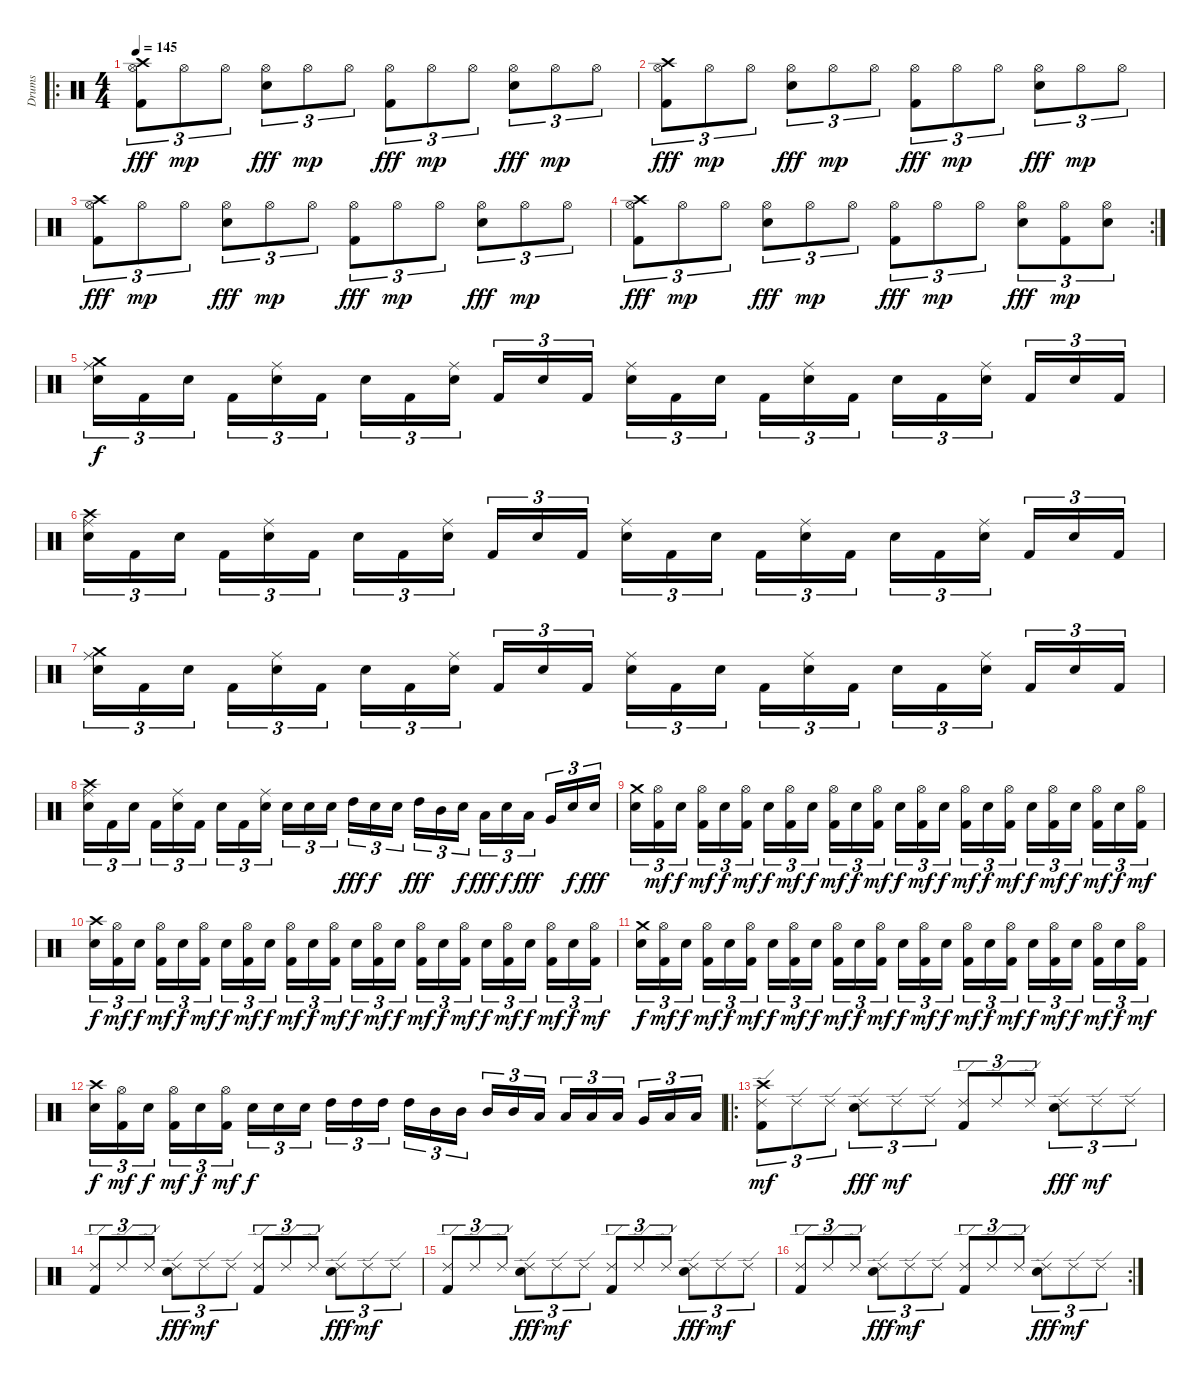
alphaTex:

\track ("Drums" "Drums") {instrument percussion}
\staff {score}
\articulation defaults
\ro
\ts (4 4)
\tempo 145
\clef neutral
\ks c
("Crash high (hit)" "Hi-Hat (open)" "Kick (hit) 2").8{tu (3 2) dy fff} "Hi-Hat (open)".8{tu (3 2) dy mp} "Hi-Hat (open)".8{tu (3 2)} ("Hi-Hat (open)" "Electric Snare (hit)").8{tu (3 2) dy fff} "Hi-Hat (open)".8{tu (3 2) dy mp} "Hi-Hat (open)".8{tu (3 2)} ("Hi-Hat (open)" "Kick (hit) 2").8{tu (3 2) dy fff} "Hi-Hat (open)".8{tu (3 2) dy mp} "Hi-Hat (open)".8{tu (3 2)} ("Hi-Hat (open)" "Electric Snare (hit)").8{tu (3 2) dy fff} "Hi-Hat (open)".8{tu (3 2) dy mp} "Hi-Hat (open)".8{tu (3 2)} |
("Crash high (hit)" "Hi-Hat (open)" "Kick (hit) 2").8{tu (3 2) dy fff} "Hi-Hat (open)".8{tu (3 2) dy mp} "Hi-Hat (open)".8{tu (3 2)} ("Hi-Hat (open)" "Electric Snare (hit)").8{tu (3 2) dy fff} "Hi-Hat (open)".8{tu (3 2) dy mp} "Hi-Hat (open)".8{tu (3 2)} ("Hi-Hat (open)" "Kick (hit) 2").8{tu (3 2) dy fff} "Hi-Hat (open)".8{tu (3 2) dy mp} "Hi-Hat (open)".8{tu (3 2)} ("Hi-Hat (open)" "Electric Snare (hit)").8{tu (3 2) dy fff} "Hi-Hat (open)".8{tu (3 2) dy mp} "Hi-Hat (open)".8{tu (3 2)} |
("Crash high (hit)" "Hi-Hat (open)" "Kick (hit) 2").8{tu (3 2) dy fff} "Hi-Hat (open)".8{tu (3 2) dy mp} "Hi-Hat (open)".8{tu (3 2)} ("Hi-Hat (open)" "Electric Snare (hit)").8{tu (3 2) dy fff} "Hi-Hat (open)".8{tu (3 2) dy mp} "Hi-Hat (open)".8{tu (3 2)} ("Hi-Hat (open)" "Kick (hit) 2").8{tu (3 2) dy fff} "Hi-Hat (open)".8{tu (3 2) dy mp} "Hi-Hat (open)".8{tu (3 2)} ("Hi-Hat (open)" "Electric Snare (hit)").8{tu (3 2) dy fff} "Hi-Hat (open)".8{tu (3 2) dy mp} "Hi-Hat (open)".8{tu (3 2)} |
\rc 2
("Crash high (hit)" "Hi-Hat (open)" "Kick (hit) 2").8{tu (3 2) dy fff} "Hi-Hat (open)".8{tu (3 2) dy mp} "Hi-Hat (open)".8{tu (3 2)} ("Hi-Hat (open)" "Electric Snare (hit)").8{tu (3 2) dy fff} "Hi-Hat (open)".8{tu (3 2) dy mp} "Hi-Hat (open)".8{tu (3 2)} ("Hi-Hat (open)" "Kick (hit) 2").8{tu (3 2) dy fff} "Hi-Hat (open)".8{tu (3 2) dy mp} "Hi-Hat (open)".8{tu (3 2)} ("Hi-Hat (open)" "Electric Snare (hit)").8{tu (3 2) dy fff} ("Hi-Hat (open)" "Kick (hit) 2").8{tu (3 2) dy mp} ("Hi-Hat (open)" "Electric Snare (hit)").8{tu (3 2)} |
("Ride (middle)" "Crash medium (hit)" "Electric Snare (hit)").16{tu (3 2) dy f} "Kick (hit) 2".16{tu (3 2)} "Electric Snare (hit)".16{tu (3 2)} "Kick (hit) 2".16{tu (3 2)} ("Ride (middle)" "Electric Snare (hit)").16{tu (3 2)} "Kick (hit) 2".16{tu (3 2)} "Electric Snare (hit)".16{tu (3 2)} "Kick (hit) 2".16{tu (3 2)} ("Ride (middle)" "Electric Snare (hit)").16{tu (3 2)} "Kick (hit) 2".16{tu (3 2)} "Electric Snare (hit)".16{tu (3 2)} "Kick (hit) 2".16{tu (3 2)} ("Ride (middle)" "Electric Snare (hit)").16{tu (3 2)} "Kick (hit) 2".16{tu (3 2)} "Electric Snare (hit)".16{tu (3 2)} "Kick (hit) 2".16{tu (3 2)} ("Ride (middle)" "Electric Snare (hit)").16{tu (3 2)} "Kick (hit) 2".16{tu (3 2)} "Electric Snare (hit)".16{tu (3 2)} "Kick (hit) 2".16{tu (3 2)} ("Ride (middle)" "Electric Snare (hit)").16{tu (3 2)} "Kick (hit) 2".16{tu (3 2)} "Electric Snare (hit)".16{tu (3 2)} "Kick (hit) 2".16{tu (3 2)} |
("Ride (middle)" "Crash high (hit)" "Electric Snare (hit)").16{tu (3 2)} "Kick (hit) 2".16{tu (3 2)} "Electric Snare (hit)".16{tu (3 2)} "Kick (hit) 2".16{tu (3 2)} ("Ride (middle)" "Electric Snare (hit)").16{tu (3 2)} "Kick (hit) 2".16{tu (3 2)} "Electric Snare (hit)".16{tu (3 2)} "Kick (hit) 2".16{tu (3 2)} ("Ride (middle)" "Electric Snare (hit)").16{tu (3 2)} "Kick (hit) 2".16{tu (3 2)} "Electric Snare (hit)".16{tu (3 2)} "Kick (hit) 2".16{tu (3 2)} ("Ride (middle)" "Electric Snare (hit)").16{tu (3 2)} "Kick (hit) 2".16{tu (3 2)} "Electric Snare (hit)".16{tu (3 2)} "Kick (hit) 2".16{tu (3 2)} ("Ride (middle)" "Electric Snare (hit)").16{tu (3 2)} "Kick (hit) 2".16{tu (3 2)} "Electric Snare (hit)".16{tu (3 2)} "Kick (hit) 2".16{tu (3 2)} ("Ride (middle)" "Electric Snare (hit)").16{tu (3 2)} "Kick (hit) 2".16{tu (3 2)} "Electric Snare (hit)".16{tu (3 2)} "Kick (hit) 2".16{tu (3 2)} |
("Ride (middle)" "Crash medium (hit)" "Electric Snare (hit)").16{tu (3 2)} "Kick (hit) 2".16{tu (3 2)} "Electric Snare (hit)".16{tu (3 2)} "Kick (hit) 2".16{tu (3 2)} ("Ride (middle)" "Electric Snare (hit)").16{tu (3 2)} "Kick (hit) 2".16{tu (3 2)} "Electric Snare (hit)".16{tu (3 2)} "Kick (hit) 2".16{tu (3 2)} ("Ride (middle)" "Electric Snare (hit)").16{tu (3 2)} "Kick (hit) 2".16{tu (3 2)} "Electric Snare (hit)".16{tu (3 2)} "Kick (hit) 2".16{tu (3 2)} ("Ride (middle)" "Electric Snare (hit)").16{tu (3 2)} "Kick (hit) 2".16{tu (3 2)} "Electric Snare (hit)".16{tu (3 2)} "Kick (hit) 2".16{tu (3 2)} ("Ride (middle)" "Electric Snare (hit)").16{tu (3 2)} "Kick (hit) 2".16{tu (3 2)} "Electric Snare (hit)".16{tu (3 2)} "Kick (hit) 2".16{tu (3 2)} ("Ride (middle)" "Electric Snare (hit)").16{tu (3 2)} "Kick (hit) 2".16{tu (3 2)} "Electric Snare (hit)".16{tu (3 2)} "Kick (hit) 2".16{tu (3 2)} |
("Ride (middle)" "Crash high (hit)" "Electric Snare (hit)").16{tu (3 2)} "Kick (hit) 2".16{tu (3 2)} "Electric Snare (hit)".16{tu (3 2)} "Kick (hit) 2".16{tu (3 2)} ("Ride (middle)" "Electric Snare (hit)").16{tu (3 2)} "Kick (hit) 2".16{tu (3 2)} "Electric Snare (hit)".16{tu (3 2)} "Kick (hit) 2".16{tu (3 2)} ("Ride (middle)" "Electric Snare (hit)").16{tu (3 2)} "Electric Snare (hit)".16{tu (3 2)} "Electric Snare (hit)".16{tu (3 2)} "Electric Snare (hit)".16{tu (3 2)} "High Tom (hit)".16{tu (3 2) dy fff} "Electric Snare (hit)".16{tu (3 2) dy f} "Electric Snare (hit)".16{tu (3 2)} "High Tom (hit)".16{tu (3 2) dy fff} "Mid Tom (hit)".16{tu (3 2)} "Electric Snare (hit)".16{tu (3 2) dy f} "Low Tom (hit)".16{tu (3 2) dy fff} "Electric Snare (hit)".16{tu (3 2) dy f} "Low Tom (hit)".16{tu (3 2) dy fff} "Very Low Tom (hit)".16{tu (3 2)} "Electric Snare (hit)".16{tu (3 2) dy f} "Electric Snare (hit)".16{tu (3 2) dy fff} |
("Crash medium (hit)" "Electric Snare (hit)").16{tu (3 2)} ("Hi-Hat (open)" "Kick (hit) 2").16{tu (3 2) dy mf} "Electric Snare (hit)".16{tu (3 2) dy f} ("Hi-Hat (open)" "Kick (hit) 2").16{tu (3 2) dy mf} "Electric Snare (hit)".16{tu (3 2) dy f} ("Hi-Hat (open)" "Kick (hit) 2").16{tu (3 2) dy mf} "Electric Snare (hit)".16{tu (3 2) dy f} ("Hi-Hat (open)" "Kick (hit) 2").16{tu (3 2) dy mf} "Electric Snare (hit)".16{tu (3 2) dy f} ("Hi-Hat (open)" "Kick (hit) 2").16{tu (3 2) dy mf} "Electric Snare (hit)".16{tu (3 2) dy f} ("Hi-Hat (open)" "Kick (hit) 2").16{tu (3 2) dy mf} "Electric Snare (hit)".16{tu (3 2) dy f} ("Hi-Hat (open)" "Kick (hit) 2").16{tu (3 2) dy mf} "Electric Snare (hit)".16{tu (3 2) dy f} ("Hi-Hat (open)" "Kick (hit) 2").16{tu (3 2) dy mf} "Electric Snare (hit)".16{tu (3 2) dy f} ("Hi-Hat (open)" "Kick (hit) 2").16{tu (3 2) dy mf} "Electric Snare (hit)".16{tu (3 2) dy f} ("Hi-Hat (open)" "Kick (hit) 2").16{tu (3 2) dy mf} "Electric Snare (hit)".16{tu (3 2) dy f} ("Hi-Hat (open)" "Kick (hit) 2").16{tu (3 2) dy mf} "Electric Snare (hit)".16{tu (3 2) dy f} ("Hi-Hat (open)" "Kick (hit) 2").16{tu (3 2) dy mf} |
("Crash high (hit)" "Electric Snare (hit)").16{tu (3 2) dy f} ("Hi-Hat (open)" "Kick (hit) 2").16{tu (3 2) dy mf} "Electric Snare (hit)".16{tu (3 2) dy f} ("Hi-Hat (open)" "Kick (hit) 2").16{tu (3 2) dy mf} "Electric Snare (hit)".16{tu (3 2) dy f} ("Hi-Hat (open)" "Kick (hit) 2").16{tu (3 2) dy mf} "Electric Snare (hit)".16{tu (3 2) dy f} ("Hi-Hat (open)" "Kick (hit) 2").16{tu (3 2) dy mf} "Electric Snare (hit)".16{tu (3 2) dy f} ("Hi-Hat (open)" "Kick (hit) 2").16{tu (3 2) dy mf} "Electric Snare (hit)".16{tu (3 2) dy f} ("Hi-Hat (open)" "Kick (hit) 2").16{tu (3 2) dy mf} "Electric Snare (hit)".16{tu (3 2) dy f} ("Hi-Hat (open)" "Kick (hit) 2").16{tu (3 2) dy mf} "Electric Snare (hit)".16{tu (3 2) dy f} ("Hi-Hat (open)" "Kick (hit) 2").16{tu (3 2) dy mf} "Electric Snare (hit)".16{tu (3 2) dy f} ("Hi-Hat (open)" "Kick (hit) 2").16{tu (3 2) dy mf} "Electric Snare (hit)".16{tu (3 2) dy f} ("Hi-Hat (open)" "Kick (hit) 2").16{tu (3 2) dy mf} "Electric Snare (hit)".16{tu (3 2) dy f} ("Hi-Hat (open)" "Kick (hit) 2").16{tu (3 2) dy mf} "Electric Snare (hit)".16{tu (3 2) dy f} ("Hi-Hat (open)" "Kick (hit) 2").16{tu (3 2) dy mf} |
("Crash medium (hit)" "Electric Snare (hit)").16{tu (3 2) dy f} ("Hi-Hat (open)" "Kick (hit) 2").16{tu (3 2) dy mf} "Electric Snare (hit)".16{tu (3 2) dy f} ("Hi-Hat (open)" "Kick (hit) 2").16{tu (3 2) dy mf} "Electric Snare (hit)".16{tu (3 2) dy f} ("Hi-Hat (open)" "Kick (hit) 2").16{tu (3 2) dy mf} "Electric Snare (hit)".16{tu (3 2) dy f} ("Hi-Hat (open)" "Kick (hit) 2").16{tu (3 2) dy mf} "Electric Snare (hit)".16{tu (3 2) dy f} ("Hi-Hat (open)" "Kick (hit) 2").16{tu (3 2) dy mf} "Electric Snare (hit)".16{tu (3 2) dy f} ("Hi-Hat (open)" "Kick (hit) 2").16{tu (3 2) dy mf} "Electric Snare (hit)".16{tu (3 2) dy f} ("Hi-Hat (open)" "Kick (hit) 2").16{tu (3 2) dy mf} "Electric Snare (hit)".16{tu (3 2) dy f} ("Hi-Hat (open)" "Kick (hit) 2").16{tu (3 2) dy mf} "Electric Snare (hit)".16{tu (3 2) dy f} ("Hi-Hat (open)" "Kick (hit) 2").16{tu (3 2) dy mf} "Electric Snare (hit)".16{tu (3 2) dy f} ("Hi-Hat (open)" "Kick (hit) 2").16{tu (3 2) dy mf} "Electric Snare (hit)".16{tu (3 2) dy f} ("Hi-Hat (open)" "Kick (hit) 2").16{tu (3 2) dy mf} "Electric Snare (hit)".16{tu (3 2) dy f} ("Hi-Hat (open)" "Kick (hit) 2").16{tu (3 2) dy mf} |
("Crash high (hit)" "Electric Snare (hit)").16{tu (3 2) dy f} ("Hi-Hat (open)" "Kick (hit) 2").16{tu (3 2) dy mf} "Electric Snare (hit)".16{tu (3 2) dy f} ("Hi-Hat (open)" "Kick (hit) 2").16{tu (3 2) dy mf} "Electric Snare (hit)".16{tu (3 2) dy f} ("Hi-Hat (open)" "Kick (hit) 2").16{tu (3 2) dy mf} "Electric Snare (hit)".16{tu (3 2) dy f} "Electric Snare (hit)".16{tu (3 2)} "Electric Snare (hit)".16{tu (3 2)} "High Tom (hit)".16{tu (3 2)} "High Tom (hit)".16{tu (3 2)} "High Tom (hit)".16{tu (3 2)} "High Tom (hit)".16{tu (3 2)} "Mid Tom (hit)".16{tu (3 2)} "Mid Tom (hit)".16{tu (3 2)} "Mid Tom (hit)".16{tu (3 2)} "Mid Tom (hit)".16{tu (3 2)} "Low Tom (hit)".16{tu (3 2)} "Low Tom (hit)".16{tu (3 2)} "Low Tom (hit)".16{tu (3 2)} "Low Tom (hit)".16{tu (3 2)} "Very Low Tom (hit)".16{tu (3 2)} "Low Floor Tom (hit)".16{tu (3 2)} "Low Floor Tom (hit)".16{tu (3 2)} |
\ro
("Crash high (hit)" "Ride (edge) 2" "Kick (hit) 2").8{tu (3 2) dy mf} "Ride (edge) 2".8{tu (3 2)} "Ride (edge) 2".8{tu (3 2)} ("Ride (edge) 2" "Electric Snare (hit)").8{tu (3 2) dy fff} "Ride (edge) 2".8{tu (3 2) dy mf} "Ride (edge) 2".8{tu (3 2)} ("Ride (edge) 2" "Kick (hit) 2").8{tu (3 2)} "Ride (edge) 2".8{tu (3 2)} "Ride (edge) 2".8{tu (3 2)} ("Ride (edge) 2" "Electric Snare (hit)").8{tu (3 2) dy fff} "Ride (edge) 2".8{tu (3 2) dy mf} "Ride (edge) 2".8{tu (3 2)} |
("Ride (edge) 2" "Kick (hit) 2").8{tu (3 2)} "Ride (edge) 2".8{tu (3 2)} "Ride (edge) 2".8{tu (3 2)} ("Ride (edge) 2" "Electric Snare (hit)").8{tu (3 2) dy fff} "Ride (edge) 2".8{tu (3 2) dy mf} "Ride (edge) 2".8{tu (3 2)} ("Ride (edge) 2" "Kick (hit) 2").8{tu (3 2)} "Ride (edge) 2".8{tu (3 2)} "Ride (edge) 2".8{tu (3 2)} ("Ride (edge) 2" "Electric Snare (hit)").8{tu (3 2) dy fff} "Ride (edge) 2".8{tu (3 2) dy mf} "Ride (edge) 2".8{tu (3 2)} |
("Ride (edge) 2" "Kick (hit) 2").8{tu (3 2)} "Ride (edge) 2".8{tu (3 2)} "Ride (edge) 2".8{tu (3 2)} ("Ride (edge) 2" "Electric Snare (hit)").8{tu (3 2) dy fff} "Ride (edge) 2".8{tu (3 2) dy mf} "Ride (edge) 2".8{tu (3 2)} ("Ride (edge) 2" "Kick (hit) 2").8{tu (3 2)} "Ride (edge) 2".8{tu (3 2)} "Ride (edge) 2".8{tu (3 2)} ("Ride (edge) 2" "Electric Snare (hit)").8{tu (3 2) dy fff} "Ride (edge) 2".8{tu (3 2) dy mf} "Ride (edge) 2".8{tu (3 2)} |
\rc 2
("Ride (edge) 2" "Kick (hit) 2").8{tu (3 2)} "Ride (edge) 2".8{tu (3 2)} "Ride (edge) 2".8{tu (3 2)} ("Ride (edge) 2" "Electric Snare (hit)").8{tu (3 2) dy fff} "Ride (edge) 2".8{tu (3 2) dy mf} "Ride (edge) 2".8{tu (3 2)} ("Ride (edge) 2" "Kick (hit) 2").8{tu (3 2)} "Ride (edge) 2".8{tu (3 2)} "Ride (edge) 2".8{tu (3 2)} ("Ride (edge) 2" "Electric Snare (hit)").8{tu (3 2) dy fff} "Ride (edge) 2".8{tu (3 2) dy mf} "Ride (edge) 2".8{tu (3 2)}
